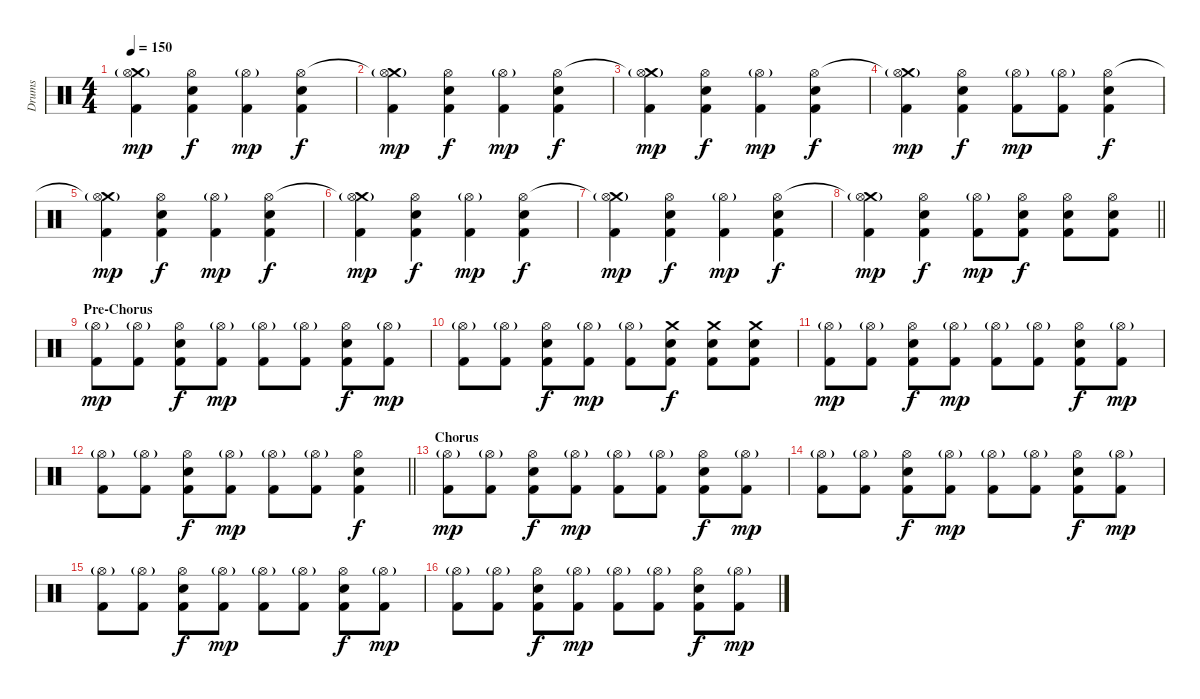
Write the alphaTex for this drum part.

\track ("Drums" "Drums") {instrument percussion}
\staff {score}
\articulation defaults
\ts (4 4)
\tempo 150
\clef neutral
\ks c
("Crash medium (hit)"{t} "Hi-Hat (open)"{g} "Kick (hit) 2").4{dy mp} ("Hi-Hat (open)" "Electric Snare (hit)" "Kick (hit) 2").4{dy f} ("Hi-Hat (open)"{g} "Kick (hit) 2").4{dy mp} ("Hi-Hat (open)" "Electric Snare (hit)" "Kick (hit) 2").4{dy f} |
("Crash medium (hit)"{t} "Hi-Hat (open)"{g} "Kick (hit) 2").4{dy mp} ("Hi-Hat (open)" "Electric Snare (hit)" "Kick (hit) 2").4{dy f} ("Hi-Hat (open)"{g} "Kick (hit) 2").4{dy mp} ("Hi-Hat (open)" "Electric Snare (hit)" "Kick (hit) 2").4{dy f} |
("Crash medium (hit)"{t} "Hi-Hat (open)"{g} "Kick (hit) 2").4{dy mp} ("Hi-Hat (open)" "Electric Snare (hit)" "Kick (hit) 2").4{dy f} ("Hi-Hat (open)"{g} "Kick (hit) 2").4{dy mp} ("Hi-Hat (open)" "Electric Snare (hit)" "Kick (hit) 2").4{dy f} |
("Crash medium (hit)"{t} "Hi-Hat (open)"{g} "Kick (hit) 2").4{dy mp} ("Hi-Hat (open)" "Electric Snare (hit)" "Kick (hit) 2").4{dy f} ("Hi-Hat (open)"{g} "Kick (hit) 2").8{dy mp} ("Hi-Hat (open)"{g} "Kick (hit) 2").8 ("Hi-Hat (open)" "Electric Snare (hit)" "Kick (hit) 2").4{dy f} |
("Crash medium (hit)"{t} "Hi-Hat (open)"{g} "Kick (hit) 2").4{dy mp} ("Hi-Hat (open)" "Electric Snare (hit)" "Kick (hit) 2").4{dy f} ("Hi-Hat (open)"{g} "Kick (hit) 2").4{dy mp} ("Hi-Hat (open)" "Electric Snare (hit)" "Kick (hit) 2").4{dy f} |
("Crash medium (hit)"{t} "Hi-Hat (open)"{g} "Kick (hit) 2").4{dy mp} ("Hi-Hat (open)" "Electric Snare (hit)" "Kick (hit) 2").4{dy f} ("Hi-Hat (open)"{g} "Kick (hit) 2").4{dy mp} ("Hi-Hat (open)" "Electric Snare (hit)" "Kick (hit) 2").4{dy f} |
("Crash medium (hit)"{t} "Hi-Hat (open)"{g} "Kick (hit) 2").4{dy mp} ("Hi-Hat (open)" "Electric Snare (hit)" "Kick (hit) 2").4{dy f} ("Hi-Hat (open)"{g} "Kick (hit) 2").4{dy mp} ("Hi-Hat (open)" "Electric Snare (hit)" "Kick (hit) 2").4{dy f} |
\barLineRight lightlight
("Crash medium (hit)"{t} "Hi-Hat (open)"{g} "Kick (hit) 2").4{dy mp} ("Hi-Hat (open)" "Electric Snare (hit)" "Kick (hit) 2").4{dy f} ("Hi-Hat (open)"{g} "Kick (hit) 2").8{dy mp} ("Hi-Hat (open)" "Electric Snare (hit)" "Kick (hit) 2").8{dy f} ("Hi-Hat (open)" "Electric Snare (hit)" "Kick (hit) 2").8 ("Hi-Hat (open)" "Electric Snare (hit)" "Kick (hit) 2").8 |
\section ("" "Pre-Chorus")
("Hi-Hat (open)"{g} "Kick (hit) 2").8{dy mp} ("Hi-Hat (open)"{g} "Kick (hit) 2").8 ("Hi-Hat (open)" "Electric Snare (hit)" "Kick (hit) 2").8{dy f} ("Hi-Hat (open)"{g} "Kick (hit) 2").8{dy mp} ("Hi-Hat (open)"{g} "Kick (hit) 2").8 ("Hi-Hat (open)"{g} "Kick (hit) 2").8 ("Hi-Hat (open)" "Electric Snare (hit)" "Kick (hit) 2").8{dy f} ("Hi-Hat (open)"{g} "Kick (hit) 2").8{dy mp} |
("Hi-Hat (open)"{g} "Kick (hit) 2").8 ("Hi-Hat (open)"{g} "Kick (hit) 2").8 ("Hi-Hat (open)" "Electric Snare (hit)" "Kick (hit) 2").8{dy f} ("Hi-Hat (open)"{g} "Kick (hit) 2").8{dy mp} ("Hi-Hat (open)"{g} "Kick (hit) 2").8 ("Crash medium (hit)" "Electric Snare (hit)" "Kick (hit) 2").8{dy f} ("Crash medium (hit)" "Electric Snare (hit)" "Kick (hit) 2").8 ("Crash medium (hit)" "Electric Snare (hit)" "Kick (hit) 2").8 |
("Hi-Hat (open)"{g} "Kick (hit) 2").8{dy mp} ("Hi-Hat (open)"{g} "Kick (hit) 2").8 ("Hi-Hat (open)" "Electric Snare (hit)" "Kick (hit) 2").8{dy f} ("Hi-Hat (open)"{g} "Kick (hit) 2").8{dy mp} ("Hi-Hat (open)"{g} "Kick (hit) 2").8 ("Hi-Hat (open)"{g} "Kick (hit) 2").8 ("Hi-Hat (open)" "Electric Snare (hit)" "Kick (hit) 2").8{dy f} ("Hi-Hat (open)"{g} "Kick (hit) 2").8{dy mp} |
\barLineRight lightlight
("Hi-Hat (open)"{g} "Kick (hit) 2").8 ("Hi-Hat (open)"{g} "Kick (hit) 2").8 ("Hi-Hat (open)" "Electric Snare (hit)" "Kick (hit) 2").8{dy f} ("Hi-Hat (open)"{g} "Kick (hit) 2").8{dy mp} ("Hi-Hat (open)"{g} "Kick (hit) 2").8 ("Hi-Hat (open)"{g} "Kick (hit) 2").8 ("Hi-Hat (open)" "Electric Snare (hit)" "Kick (hit) 2").4{dy f} |
\section ("" "Chorus")
("Hi-Hat (open)"{g} "Kick (hit) 2").8{dy mp} ("Hi-Hat (open)"{g} "Kick (hit) 2").8 ("Hi-Hat (open)" "Electric Snare (hit)" "Kick (hit) 2").8{dy f} ("Hi-Hat (open)"{g} "Kick (hit) 2").8{dy mp} ("Hi-Hat (open)"{g} "Kick (hit) 2").8 ("Hi-Hat (open)"{g} "Kick (hit) 2").8 ("Hi-Hat (open)" "Electric Snare (hit)" "Kick (hit) 2").8{dy f} ("Hi-Hat (open)"{g} "Kick (hit) 2").8{dy mp} |
("Hi-Hat (open)"{g} "Kick (hit) 2").8 ("Hi-Hat (open)"{g} "Kick (hit) 2").8 ("Hi-Hat (open)" "Electric Snare (hit)" "Kick (hit) 2").8{dy f} ("Hi-Hat (open)"{g} "Kick (hit) 2").8{dy mp} ("Hi-Hat (open)"{g} "Kick (hit) 2").8 ("Hi-Hat (open)"{g} "Kick (hit) 2").8 ("Hi-Hat (open)" "Electric Snare (hit)" "Kick (hit) 2").8{dy f} ("Hi-Hat (open)"{g} "Kick (hit) 2").8{dy mp} |
("Hi-Hat (open)"{g} "Kick (hit) 2").8 ("Hi-Hat (open)"{g} "Kick (hit) 2").8 ("Hi-Hat (open)" "Electric Snare (hit)" "Kick (hit) 2").8{dy f} ("Hi-Hat (open)"{g} "Kick (hit) 2").8{dy mp} ("Hi-Hat (open)"{g} "Kick (hit) 2").8 ("Hi-Hat (open)"{g} "Kick (hit) 2").8 ("Hi-Hat (open)" "Electric Snare (hit)" "Kick (hit) 2").8{dy f} ("Hi-Hat (open)"{g} "Kick (hit) 2").8{dy mp} |
("Hi-Hat (open)"{g} "Kick (hit) 2").8 ("Hi-Hat (open)"{g} "Kick (hit) 2").8 ("Hi-Hat (open)" "Electric Snare (hit)" "Kick (hit) 2").8{dy f} ("Hi-Hat (open)"{g} "Kick (hit) 2").8{dy mp} ("Hi-Hat (open)"{g} "Kick (hit) 2").8 ("Hi-Hat (open)"{g} "Kick (hit) 2").8 ("Hi-Hat (open)" "Electric Snare (hit)" "Kick (hit) 2").8{dy f} ("Hi-Hat (open)"{g} "Kick (hit) 2").8{dy mp}
